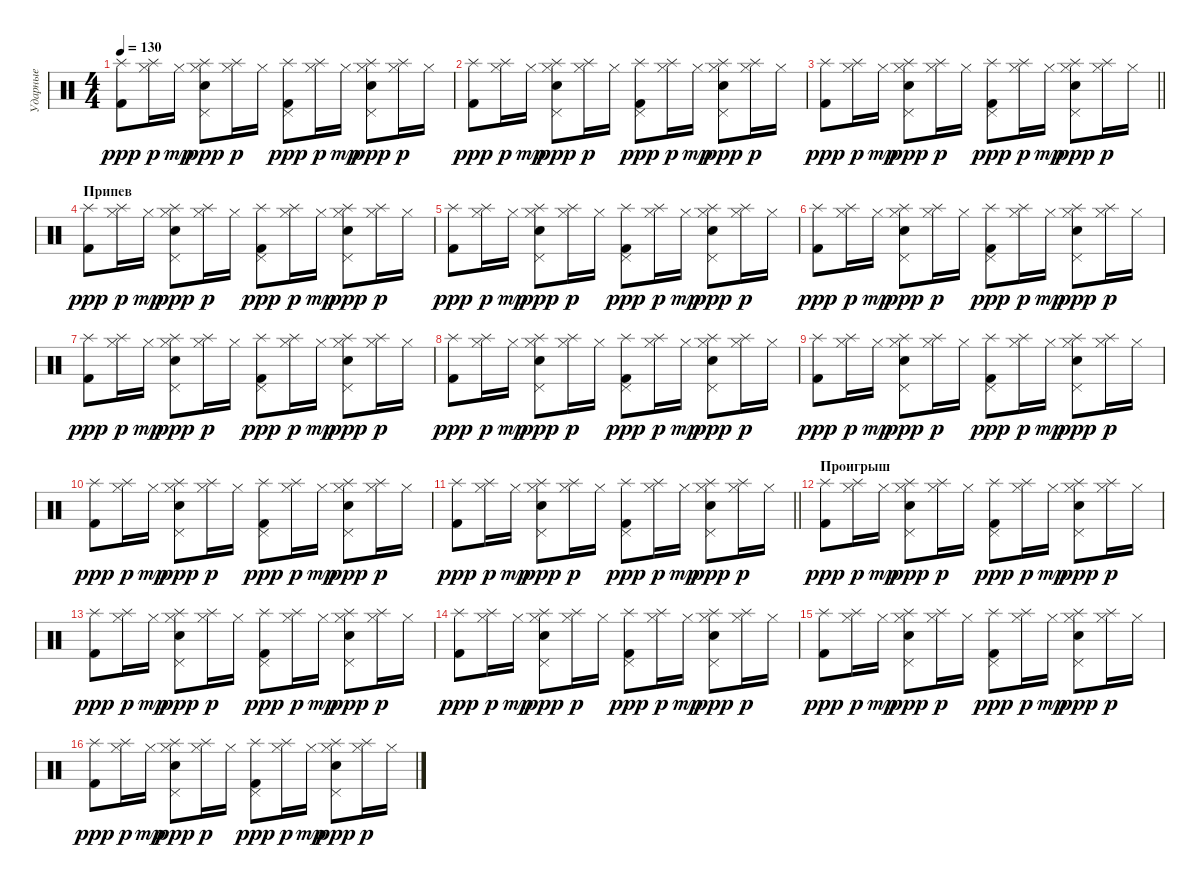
\track ("Ударные" "Ударные") {instrument percussion bank 17}
\staff {score}
\articulation defaults
\ts (4 4)
\tempo 130
\clef neutral
\ks c
("Kick (hit) 2" "Splash (hit)").8{dy ppp} ("Hi-Hat (closed)" "Splash (hit)").16{dy p} "Hi-Hat (closed)".16{dy mp} ("Snare (hit) 2" "Pedal Hi-Hat (hit)" "Hi-Hat (closed)" "Splash (hit)").8{dy ppp} ("Hi-Hat (closed)" "Splash (hit)").16{dy p} "Hi-Hat (closed)".16 ("Kick (hit) 2" "Pedal Hi-Hat (hit)" "Splash (hit)").8{dy ppp} ("Hi-Hat (closed)" "Splash (hit)").16{dy p} "Hi-Hat (closed)".16{dy mp} ("Snare (hit) 2" "Pedal Hi-Hat (hit)" "Hi-Hat (closed)" "Splash (hit)").8{dy ppp} ("Hi-Hat (closed)" "Splash (hit)").16{dy p} "Hi-Hat (closed)".16 |
("Kick (hit) 2" "Splash (hit)").8{dy ppp} ("Hi-Hat (closed)" "Splash (hit)").16{dy p} "Hi-Hat (closed)".16{dy mp} ("Snare (hit) 2" "Pedal Hi-Hat (hit)" "Hi-Hat (closed)" "Splash (hit)").8{dy ppp} ("Hi-Hat (closed)" "Splash (hit)").16{dy p} "Hi-Hat (closed)".16 ("Kick (hit) 2" "Pedal Hi-Hat (hit)" "Splash (hit)").8{dy ppp} ("Hi-Hat (closed)" "Splash (hit)").16{dy p} "Hi-Hat (closed)".16{dy mp} ("Snare (hit) 2" "Pedal Hi-Hat (hit)" "Hi-Hat (closed)" "Splash (hit)").8{dy ppp} ("Hi-Hat (closed)" "Splash (hit)").16{dy p} "Hi-Hat (closed)".16 |
\barLineRight lightlight
("Kick (hit) 2" "Splash (hit)").8{dy ppp} ("Hi-Hat (closed)" "Splash (hit)").16{dy p} "Hi-Hat (closed)".16{dy mp} ("Snare (hit) 2" "Pedal Hi-Hat (hit)" "Hi-Hat (closed)" "Splash (hit)").8{dy ppp} ("Hi-Hat (closed)" "Splash (hit)").16{dy p} "Hi-Hat (closed)".16 ("Kick (hit) 2" "Pedal Hi-Hat (hit)" "Splash (hit)").8{dy ppp} ("Hi-Hat (closed)" "Splash (hit)").16{dy p} "Hi-Hat (closed)".16{dy mp} ("Snare (hit) 2" "Pedal Hi-Hat (hit)" "Hi-Hat (closed)" "Splash (hit)").8{dy ppp} ("Hi-Hat (closed)" "Splash (hit)").16{dy p} "Hi-Hat (closed)".16 |
\section ("" "Припев")
("Kick (hit) 2" "Splash (hit)").8{dy ppp} ("Hi-Hat (closed)" "Splash (hit)").16{dy p} "Hi-Hat (closed)".16{dy mp} ("Snare (hit) 2" "Pedal Hi-Hat (hit)" "Hi-Hat (closed)" "Splash (hit)").8{dy ppp} ("Hi-Hat (closed)" "Splash (hit)").16{dy p} "Hi-Hat (closed)".16 ("Kick (hit) 2" "Pedal Hi-Hat (hit)" "Splash (hit)").8{dy ppp} ("Hi-Hat (closed)" "Splash (hit)").16{dy p} "Hi-Hat (closed)".16{dy mp} ("Snare (hit) 2" "Pedal Hi-Hat (hit)" "Hi-Hat (closed)" "Splash (hit)").8{dy ppp} ("Hi-Hat (closed)" "Splash (hit)").16{dy p} "Hi-Hat (closed)".16 |
("Kick (hit) 2" "Splash (hit)").8{dy ppp} ("Hi-Hat (closed)" "Splash (hit)").16{dy p} "Hi-Hat (closed)".16{dy mp} ("Snare (hit) 2" "Pedal Hi-Hat (hit)" "Hi-Hat (closed)" "Splash (hit)").8{dy ppp} ("Hi-Hat (closed)" "Splash (hit)").16{dy p} "Hi-Hat (closed)".16 ("Kick (hit) 2" "Pedal Hi-Hat (hit)" "Splash (hit)").8{dy ppp} ("Hi-Hat (closed)" "Splash (hit)").16{dy p} "Hi-Hat (closed)".16{dy mp} ("Snare (hit) 2" "Pedal Hi-Hat (hit)" "Hi-Hat (closed)" "Splash (hit)").8{dy ppp} ("Hi-Hat (closed)" "Splash (hit)").16{dy p} "Hi-Hat (closed)".16 |
("Kick (hit) 2" "Splash (hit)").8{dy ppp} ("Hi-Hat (closed)" "Splash (hit)").16{dy p} "Hi-Hat (closed)".16{dy mp} ("Snare (hit) 2" "Pedal Hi-Hat (hit)" "Hi-Hat (closed)" "Splash (hit)").8{dy ppp} ("Hi-Hat (closed)" "Splash (hit)").16{dy p} "Hi-Hat (closed)".16 ("Kick (hit) 2" "Pedal Hi-Hat (hit)" "Splash (hit)").8{dy ppp} ("Hi-Hat (closed)" "Splash (hit)").16{dy p} "Hi-Hat (closed)".16{dy mp} ("Snare (hit) 2" "Pedal Hi-Hat (hit)" "Hi-Hat (closed)" "Splash (hit)").8{dy ppp} ("Hi-Hat (closed)" "Splash (hit)").16{dy p} "Hi-Hat (closed)".16 |
("Kick (hit) 2" "Splash (hit)").8{dy ppp} ("Hi-Hat (closed)" "Splash (hit)").16{dy p} "Hi-Hat (closed)".16{dy mp} ("Snare (hit) 2" "Pedal Hi-Hat (hit)" "Hi-Hat (closed)" "Splash (hit)").8{dy ppp} ("Hi-Hat (closed)" "Splash (hit)").16{dy p} "Hi-Hat (closed)".16 ("Kick (hit) 2" "Pedal Hi-Hat (hit)" "Splash (hit)").8{dy ppp} ("Hi-Hat (closed)" "Splash (hit)").16{dy p} "Hi-Hat (closed)".16{dy mp} ("Snare (hit) 2" "Pedal Hi-Hat (hit)" "Hi-Hat (closed)" "Splash (hit)").8{dy ppp} ("Hi-Hat (closed)" "Splash (hit)").16{dy p} "Hi-Hat (closed)".16 |
("Kick (hit) 2" "Splash (hit)").8{dy ppp} ("Hi-Hat (closed)" "Splash (hit)").16{dy p} "Hi-Hat (closed)".16{dy mp} ("Snare (hit) 2" "Pedal Hi-Hat (hit)" "Hi-Hat (closed)" "Splash (hit)").8{dy ppp} ("Hi-Hat (closed)" "Splash (hit)").16{dy p} "Hi-Hat (closed)".16 ("Kick (hit) 2" "Pedal Hi-Hat (hit)" "Splash (hit)").8{dy ppp} ("Hi-Hat (closed)" "Splash (hit)").16{dy p} "Hi-Hat (closed)".16{dy mp} ("Snare (hit) 2" "Pedal Hi-Hat (hit)" "Hi-Hat (closed)" "Splash (hit)").8{dy ppp} ("Hi-Hat (closed)" "Splash (hit)").16{dy p} "Hi-Hat (closed)".16 |
("Kick (hit) 2" "Splash (hit)").8{dy ppp} ("Hi-Hat (closed)" "Splash (hit)").16{dy p} "Hi-Hat (closed)".16{dy mp} ("Snare (hit) 2" "Pedal Hi-Hat (hit)" "Hi-Hat (closed)" "Splash (hit)").8{dy ppp} ("Hi-Hat (closed)" "Splash (hit)").16{dy p} "Hi-Hat (closed)".16 ("Kick (hit) 2" "Pedal Hi-Hat (hit)" "Splash (hit)").8{dy ppp} ("Hi-Hat (closed)" "Splash (hit)").16{dy p} "Hi-Hat (closed)".16{dy mp} ("Snare (hit) 2" "Pedal Hi-Hat (hit)" "Hi-Hat (closed)" "Splash (hit)").8{dy ppp} ("Hi-Hat (closed)" "Splash (hit)").16{dy p} "Hi-Hat (closed)".16 |
("Kick (hit) 2" "Splash (hit)").8{dy ppp} ("Hi-Hat (closed)" "Splash (hit)").16{dy p} "Hi-Hat (closed)".16{dy mp} ("Snare (hit) 2" "Pedal Hi-Hat (hit)" "Hi-Hat (closed)" "Splash (hit)").8{dy ppp} ("Hi-Hat (closed)" "Splash (hit)").16{dy p} "Hi-Hat (closed)".16 ("Kick (hit) 2" "Pedal Hi-Hat (hit)" "Splash (hit)").8{dy ppp} ("Hi-Hat (closed)" "Splash (hit)").16{dy p} "Hi-Hat (closed)".16{dy mp} ("Snare (hit) 2" "Pedal Hi-Hat (hit)" "Hi-Hat (closed)" "Splash (hit)").8{dy ppp} ("Hi-Hat (closed)" "Splash (hit)").16{dy p} "Hi-Hat (closed)".16 |
\barLineRight lightlight
("Kick (hit) 2" "Splash (hit)").8{dy ppp} ("Hi-Hat (closed)" "Splash (hit)").16{dy p} "Hi-Hat (closed)".16{dy mp} ("Snare (hit) 2" "Pedal Hi-Hat (hit)" "Hi-Hat (closed)" "Splash (hit)").8{dy ppp} ("Hi-Hat (closed)" "Splash (hit)").16{dy p} "Hi-Hat (closed)".16 ("Kick (hit) 2" "Pedal Hi-Hat (hit)" "Splash (hit)").8{dy ppp} ("Hi-Hat (closed)" "Splash (hit)").16{dy p} "Hi-Hat (closed)".16{dy mp} ("Snare (hit) 2" "Pedal Hi-Hat (hit)" "Hi-Hat (closed)" "Splash (hit)").8{dy ppp} ("Hi-Hat (closed)" "Splash (hit)").16{dy p} "Hi-Hat (closed)".16 |
\section ("" "Проигрыш")
("Kick (hit) 2" "Splash (hit)").8{dy ppp} ("Hi-Hat (closed)" "Splash (hit)").16{dy p} "Hi-Hat (closed)".16{dy mp} ("Snare (hit) 2" "Pedal Hi-Hat (hit)" "Hi-Hat (closed)" "Splash (hit)").8{dy ppp} ("Hi-Hat (closed)" "Splash (hit)").16{dy p} "Hi-Hat (closed)".16 ("Kick (hit) 2" "Pedal Hi-Hat (hit)" "Splash (hit)").8{dy ppp} ("Hi-Hat (closed)" "Splash (hit)").16{dy p} "Hi-Hat (closed)".16{dy mp} ("Snare (hit) 2" "Pedal Hi-Hat (hit)" "Hi-Hat (closed)" "Splash (hit)").8{dy ppp} ("Hi-Hat (closed)" "Splash (hit)").16{dy p} "Hi-Hat (closed)".16 |
("Kick (hit) 2" "Splash (hit)").8{dy ppp} ("Hi-Hat (closed)" "Splash (hit)").16{dy p} "Hi-Hat (closed)".16{dy mp} ("Snare (hit) 2" "Pedal Hi-Hat (hit)" "Hi-Hat (closed)" "Splash (hit)").8{dy ppp} ("Hi-Hat (closed)" "Splash (hit)").16{dy p} "Hi-Hat (closed)".16 ("Kick (hit) 2" "Pedal Hi-Hat (hit)" "Splash (hit)").8{dy ppp} ("Hi-Hat (closed)" "Splash (hit)").16{dy p} "Hi-Hat (closed)".16{dy mp} ("Snare (hit) 2" "Pedal Hi-Hat (hit)" "Hi-Hat (closed)" "Splash (hit)").8{dy ppp} ("Hi-Hat (closed)" "Splash (hit)").16{dy p} "Hi-Hat (closed)".16 |
("Kick (hit) 2" "Splash (hit)").8{dy ppp} ("Hi-Hat (closed)" "Splash (hit)").16{dy p} "Hi-Hat (closed)".16{dy mp} ("Snare (hit) 2" "Pedal Hi-Hat (hit)" "Hi-Hat (closed)" "Splash (hit)").8{dy ppp} ("Hi-Hat (closed)" "Splash (hit)").16{dy p} "Hi-Hat (closed)".16 ("Kick (hit) 2" "Pedal Hi-Hat (hit)" "Splash (hit)").8{dy ppp} ("Hi-Hat (closed)" "Splash (hit)").16{dy p} "Hi-Hat (closed)".16{dy mp} ("Snare (hit) 2" "Pedal Hi-Hat (hit)" "Hi-Hat (closed)" "Splash (hit)").8{dy ppp} ("Hi-Hat (closed)" "Splash (hit)").16{dy p} "Hi-Hat (closed)".16 |
("Kick (hit) 2" "Splash (hit)").8{dy ppp} ("Hi-Hat (closed)" "Splash (hit)").16{dy p} "Hi-Hat (closed)".16{dy mp} ("Snare (hit) 2" "Pedal Hi-Hat (hit)" "Hi-Hat (closed)" "Splash (hit)").8{dy ppp} ("Hi-Hat (closed)" "Splash (hit)").16{dy p} "Hi-Hat (closed)".16 ("Kick (hit) 2" "Pedal Hi-Hat (hit)" "Splash (hit)").8{dy ppp} ("Hi-Hat (closed)" "Splash (hit)").16{dy p} "Hi-Hat (closed)".16{dy mp} ("Snare (hit) 2" "Pedal Hi-Hat (hit)" "Hi-Hat (closed)" "Splash (hit)").8{dy ppp} ("Hi-Hat (closed)" "Splash (hit)").16{dy p} "Hi-Hat (closed)".16 |
("Kick (hit) 2" "Splash (hit)").8{dy ppp} ("Hi-Hat (closed)" "Splash (hit)").16{dy p} "Hi-Hat (closed)".16{dy mp} ("Snare (hit) 2" "Pedal Hi-Hat (hit)" "Hi-Hat (closed)" "Splash (hit)").8{dy ppp} ("Hi-Hat (closed)" "Splash (hit)").16{dy p} "Hi-Hat (closed)".16 ("Kick (hit) 2" "Pedal Hi-Hat (hit)" "Splash (hit)").8{dy ppp} ("Hi-Hat (closed)" "Splash (hit)").16{dy p} "Hi-Hat (closed)".16{dy mp} ("Snare (hit) 2" "Pedal Hi-Hat (hit)" "Hi-Hat (closed)" "Splash (hit)").8{dy ppp} ("Hi-Hat (closed)" "Splash (hit)").16{dy p} "Hi-Hat (closed)".16
